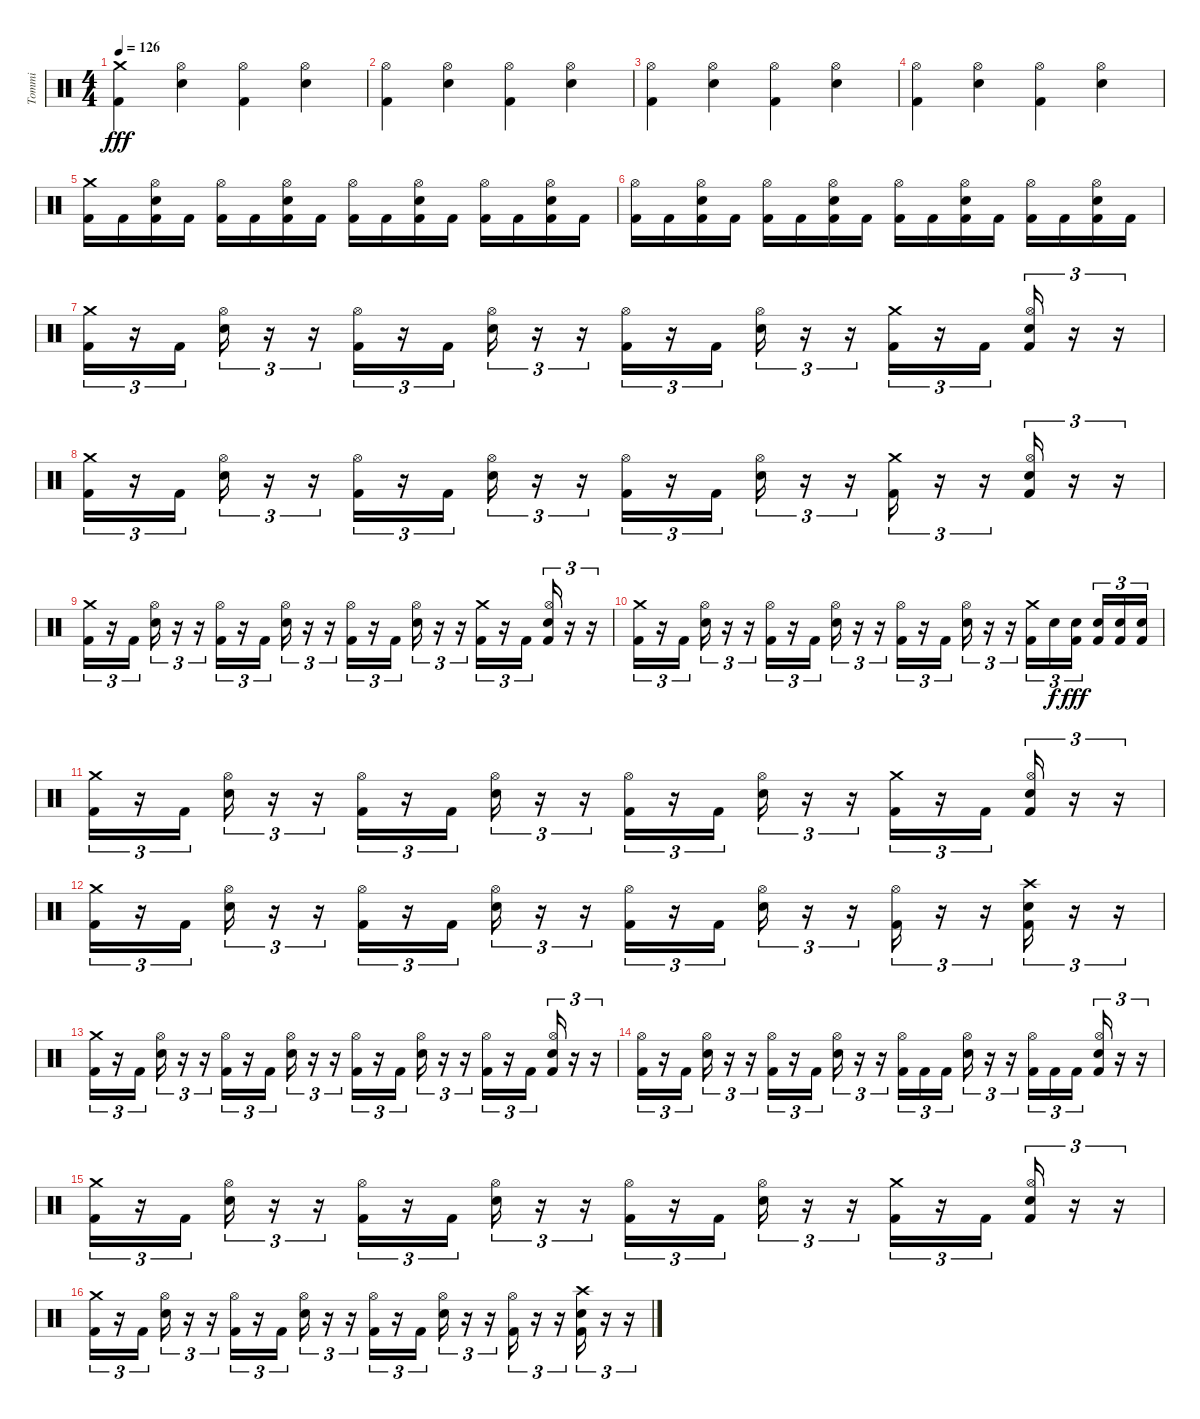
\track ("Tommi" "Tommi") {instrument percussion}
\staff {score}
\articulation defaults
\ts (4 4)
\tempo 126
\clef neutral
\ks c
("Crash medium (hit)" "Kick (hit) 2").4{dy fff} ("Hi-Hat (open)" "Snare (hit) 2").4 ("Hi-Hat (open)" "Kick (hit) 2").4 ("Hi-Hat (open)" "Snare (hit) 2").4 |
("Hi-Hat (open)" "Kick (hit) 2").4 ("Hi-Hat (open)" "Snare (hit) 2").4 ("Hi-Hat (open)" "Kick (hit) 2").4 ("Hi-Hat (open)" "Snare (hit) 2").4 |
("Hi-Hat (open)" "Kick (hit) 2").4 ("Hi-Hat (open)" "Snare (hit) 2").4 ("Hi-Hat (open)" "Kick (hit) 2").4 ("Hi-Hat (open)" "Snare (hit) 2").4 |
("Hi-Hat (open)" "Kick (hit) 2").4 ("Hi-Hat (open)" "Snare (hit) 2").4 ("Hi-Hat (open)" "Kick (hit) 2").4 ("Hi-Hat (open)" "Snare (hit) 2").4 |
("Crash medium (hit)" "Kick (hit) 2").16 "Kick (hit) 2".16 ("Hi-Hat (open)" "Snare (hit) 2" "Kick (hit) 2").16 "Kick (hit) 2".16 ("Hi-Hat (open)" "Kick (hit) 2").16 "Kick (hit) 2".16 ("Hi-Hat (open)" "Snare (hit) 2" "Kick (hit) 2").16 "Kick (hit) 2".16 ("Hi-Hat (open)" "Kick (hit) 2").16 "Kick (hit) 2".16 ("Hi-Hat (open)" "Snare (hit) 2" "Kick (hit) 2").16 "Kick (hit) 2".16 ("Hi-Hat (open)" "Kick (hit) 2").16 "Kick (hit) 2".16 ("Hi-Hat (open)" "Snare (hit) 2" "Kick (hit) 2").16 "Kick (hit) 2".16 |
("Hi-Hat (open)" "Kick (hit) 2").16 "Kick (hit) 2".16 ("Hi-Hat (open)" "Snare (hit) 2" "Kick (hit) 2").16 "Kick (hit) 2".16 ("Hi-Hat (open)" "Kick (hit) 2").16 "Kick (hit) 2".16 ("Hi-Hat (open)" "Snare (hit) 2" "Kick (hit) 2").16 "Kick (hit) 2".16 ("Hi-Hat (open)" "Kick (hit) 2").16 "Kick (hit) 2".16 ("Hi-Hat (open)" "Snare (hit) 2" "Kick (hit) 2").16 "Kick (hit) 2".16 ("Hi-Hat (open)" "Kick (hit) 2").16 "Kick (hit) 2".16 ("Hi-Hat (open)" "Snare (hit) 2" "Kick (hit) 2").16 "Kick (hit) 2".16 |
("Crash medium (hit)" "Kick (hit) 2").16{tu (3 2)} r.16{tu (3 2)} "Kick (hit) 2".16{tu (3 2)} ("Hi-Hat (open)" "Snare (hit) 2").16{tu (3 2)} r.16{tu (3 2)} r.16{tu (3 2)} ("Hi-Hat (open)" "Kick (hit) 2").16{tu (3 2)} r.16{tu (3 2)} "Kick (hit) 2".16{tu (3 2)} ("Hi-Hat (open)" "Snare (hit) 2").16{tu (3 2)} r.16{tu (3 2)} r.16{tu (3 2)} ("Hi-Hat (open)" "Kick (hit) 2").16{tu (3 2)} r.16{tu (3 2)} "Kick (hit) 2".16{tu (3 2)} ("Hi-Hat (open)" "Snare (hit) 2").16{tu (3 2)} r.16{tu (3 2)} r.16{tu (3 2)} ("Crash medium (hit)" "Kick (hit) 2").16{tu (3 2)} r.16{tu (3 2)} "Kick (hit) 2".16{tu (3 2)} ("Hi-Hat (open)" "Snare (hit) 2" "Kick (hit) 2").16{tu (3 2)} r.16{tu (3 2)} r.16{tu (3 2)} |
("Crash medium (hit)" "Kick (hit) 2").16{tu (3 2)} r.16{tu (3 2)} "Kick (hit) 2".16{tu (3 2)} ("Hi-Hat (open)" "Snare (hit) 2").16{tu (3 2)} r.16{tu (3 2)} r.16{tu (3 2)} ("Hi-Hat (open)" "Kick (hit) 2").16{tu (3 2)} r.16{tu (3 2)} "Kick (hit) 2".16{tu (3 2)} ("Hi-Hat (open)" "Snare (hit) 2").16{tu (3 2)} r.16{tu (3 2)} r.16{tu (3 2)} ("Hi-Hat (open)" "Kick (hit) 2").16{tu (3 2)} r.16{tu (3 2)} "Kick (hit) 2".16{tu (3 2)} ("Hi-Hat (open)" "Snare (hit) 2").16{tu (3 2)} r.16{tu (3 2)} r.16{tu (3 2)} ("Crash medium (hit)" "Kick (hit) 2").16{tu (3 2)} r.16{tu (3 2)} r.16{tu (3 2)} ("Hi-Hat (open)" "Snare (hit) 2" "Kick (hit) 2").16{tu (3 2)} r.16{tu (3 2)} r.16{tu (3 2)} |
("Crash medium (hit)" "Kick (hit) 2").16{tu (3 2)} r.16{tu (3 2)} "Kick (hit) 2".16{tu (3 2)} ("Hi-Hat (open)" "Snare (hit) 2").16{tu (3 2)} r.16{tu (3 2)} r.16{tu (3 2)} ("Hi-Hat (open)" "Kick (hit) 2").16{tu (3 2)} r.16{tu (3 2)} "Kick (hit) 2".16{tu (3 2)} ("Hi-Hat (open)" "Snare (hit) 2").16{tu (3 2)} r.16{tu (3 2)} r.16{tu (3 2)} ("Hi-Hat (open)" "Kick (hit) 2").16{tu (3 2)} r.16{tu (3 2)} "Kick (hit) 2".16{tu (3 2)} ("Hi-Hat (open)" "Snare (hit) 2").16{tu (3 2)} r.16{tu (3 2)} r.16{tu (3 2)} ("Crash medium (hit)" "Kick (hit) 2").16{tu (3 2)} r.16{tu (3 2)} "Kick (hit) 2".16{tu (3 2)} ("Hi-Hat (open)" "Snare (hit) 2" "Kick (hit) 2").16{tu (3 2)} r.16{tu (3 2)} r.16{tu (3 2)} |
("Crash medium (hit)" "Kick (hit) 2").16{tu (3 2)} r.16{tu (3 2)} "Kick (hit) 2".16{tu (3 2)} ("Hi-Hat (open)" "Snare (hit) 2").16{tu (3 2)} r.16{tu (3 2)} r.16{tu (3 2)} ("Hi-Hat (open)" "Kick (hit) 2").16{tu (3 2)} r.16{tu (3 2)} "Kick (hit) 2".16{tu (3 2)} ("Hi-Hat (open)" "Snare (hit) 2").16{tu (3 2)} r.16{tu (3 2)} r.16{tu (3 2)} ("Hi-Hat (open)" "Kick (hit) 2").16{tu (3 2)} r.16{tu (3 2)} "Kick (hit) 2".16{tu (3 2)} ("Hi-Hat (open)" "Snare (hit) 2").16{tu (3 2)} r.16{tu (3 2)} r.16{tu (3 2)} ("Crash medium (hit)" "Kick (hit) 2").16{tu (3 2)} "Snare (hit) 2".16{tu (3 2) dy f} ("Snare (hit) 2" "Kick (hit) 2").16{tu (3 2) dy fff beam splitsecondary} ("Snare (hit) 2" "Kick (hit) 2").16{tu (3 2)} ("Snare (hit) 2" "Kick (hit) 2").16{tu (3 2)} ("Snare (hit) 2" "Kick (hit) 2").16{tu (3 2)} |
("Crash medium (hit)" "Kick (hit) 2").16{tu (3 2)} r.16{tu (3 2)} "Kick (hit) 2".16{tu (3 2)} ("Hi-Hat (open)" "Snare (hit) 2").16{tu (3 2)} r.16{tu (3 2)} r.16{tu (3 2)} ("Hi-Hat (open)" "Kick (hit) 2").16{tu (3 2)} r.16{tu (3 2)} "Kick (hit) 2".16{tu (3 2)} ("Hi-Hat (open)" "Snare (hit) 2").16{tu (3 2)} r.16{tu (3 2)} r.16{tu (3 2)} ("Hi-Hat (open)" "Kick (hit) 2").16{tu (3 2)} r.16{tu (3 2)} "Kick (hit) 2".16{tu (3 2)} ("Hi-Hat (open)" "Snare (hit) 2").16{tu (3 2)} r.16{tu (3 2)} r.16{tu (3 2)} ("Crash medium (hit)" "Kick (hit) 2").16{tu (3 2)} r.16{tu (3 2)} "Kick (hit) 2".16{tu (3 2)} ("Hi-Hat (open)" "Snare (hit) 2" "Kick (hit) 2").16{tu (3 2)} r.16{tu (3 2)} r.16{tu (3 2)} |
("Crash medium (hit)" "Kick (hit) 2").16{tu (3 2)} r.16{tu (3 2)} "Kick (hit) 2".16{tu (3 2)} ("Hi-Hat (open)" "Snare (hit) 2").16{tu (3 2)} r.16{tu (3 2)} r.16{tu (3 2)} ("Hi-Hat (open)" "Kick (hit) 2").16{tu (3 2)} r.16{tu (3 2)} "Kick (hit) 2".16{tu (3 2)} ("Hi-Hat (open)" "Snare (hit) 2").16{tu (3 2)} r.16{tu (3 2)} r.16{tu (3 2)} ("Hi-Hat (open)" "Kick (hit) 2").16{tu (3 2)} r.16{tu (3 2)} "Kick (hit) 2".16{tu (3 2)} ("Hi-Hat (open)" "Snare (hit) 2").16{tu (3 2)} r.16{tu (3 2)} r.16{tu (3 2)} ("Hi-Hat (open)" "Kick (hit) 2").16{tu (3 2)} r.16{tu (3 2)} r.16{tu (3 2)} ("Crash high (hit)" "Snare (hit) 2" "Kick (hit) 2").16{tu (3 2)} r.16{tu (3 2)} r.16{tu (3 2)} |
("Crash medium (hit)" "Kick (hit) 2").16{tu (3 2)} r.16{tu (3 2)} "Kick (hit) 2".16{tu (3 2)} ("Hi-Hat (open)" "Snare (hit) 2").16{tu (3 2)} r.16{tu (3 2)} r.16{tu (3 2)} ("Hi-Hat (open)" "Kick (hit) 2").16{tu (3 2)} r.16{tu (3 2)} "Kick (hit) 2".16{tu (3 2)} ("Hi-Hat (open)" "Snare (hit) 2").16{tu (3 2)} r.16{tu (3 2)} r.16{tu (3 2)} ("Hi-Hat (open)" "Kick (hit) 2").16{tu (3 2)} r.16{tu (3 2)} "Kick (hit) 2".16{tu (3 2)} ("Hi-Hat (open)" "Snare (hit) 2").16{tu (3 2)} r.16{tu (3 2)} r.16{tu (3 2)} ("Hi-Hat (open)" "Kick (hit) 2").16{tu (3 2)} r.16{tu (3 2)} "Kick (hit) 2".16{tu (3 2)} ("Hi-Hat (open)" "Snare (hit) 2" "Kick (hit) 2").16{tu (3 2)} r.16{tu (3 2)} r.16{tu (3 2)} |
("Hi-Hat (open)" "Kick (hit) 2").16{tu (3 2)} r.16{tu (3 2)} "Kick (hit) 2".16{tu (3 2)} ("Hi-Hat (open)" "Snare (hit) 2").16{tu (3 2)} r.16{tu (3 2)} r.16{tu (3 2)} ("Hi-Hat (open)" "Kick (hit) 2").16{tu (3 2)} r.16{tu (3 2)} "Kick (hit) 2".16{tu (3 2)} ("Hi-Hat (open)" "Snare (hit) 2").16{tu (3 2)} r.16{tu (3 2)} r.16{tu (3 2)} ("Hi-Hat (open)" "Kick (hit) 2").16{tu (3 2)} "Kick (hit) 2".16{tu (3 2)} "Kick (hit) 2".16{tu (3 2) beam splitsecondary} ("Hi-Hat (open)" "Snare (hit) 2").16{tu (3 2)} r.16{tu (3 2)} r.16{tu (3 2)} ("Hi-Hat (open)" "Kick (hit) 2").16{tu (3 2)} "Kick (hit) 2".16{tu (3 2)} "Kick (hit) 2".16{tu (3 2) beam splitsecondary} ("Hi-Hat (open)" "Snare (hit) 2" "Kick (hit) 2").16{tu (3 2)} r.16{tu (3 2)} r.16{tu (3 2)} |
("Crash medium (hit)" "Kick (hit) 2").16{tu (3 2)} r.16{tu (3 2)} "Kick (hit) 2".16{tu (3 2)} ("Hi-Hat (open)" "Snare (hit) 2").16{tu (3 2)} r.16{tu (3 2)} r.16{tu (3 2)} ("Hi-Hat (open)" "Kick (hit) 2").16{tu (3 2)} r.16{tu (3 2)} "Kick (hit) 2".16{tu (3 2)} ("Hi-Hat (open)" "Snare (hit) 2").16{tu (3 2)} r.16{tu (3 2)} r.16{tu (3 2)} ("Hi-Hat (open)" "Kick (hit) 2").16{tu (3 2)} r.16{tu (3 2)} "Kick (hit) 2".16{tu (3 2)} ("Hi-Hat (open)" "Snare (hit) 2").16{tu (3 2)} r.16{tu (3 2)} r.16{tu (3 2)} ("Crash medium (hit)" "Kick (hit) 2").16{tu (3 2)} r.16{tu (3 2)} "Kick (hit) 2".16{tu (3 2)} ("Hi-Hat (open)" "Snare (hit) 2" "Kick (hit) 2").16{tu (3 2)} r.16{tu (3 2)} r.16{tu (3 2)} |
("Crash medium (hit)" "Kick (hit) 2").16{tu (3 2)} r.16{tu (3 2)} "Kick (hit) 2".16{tu (3 2)} ("Hi-Hat (open)" "Snare (hit) 2").16{tu (3 2)} r.16{tu (3 2)} r.16{tu (3 2)} ("Hi-Hat (open)" "Kick (hit) 2").16{tu (3 2)} r.16{tu (3 2)} "Kick (hit) 2".16{tu (3 2)} ("Hi-Hat (open)" "Snare (hit) 2").16{tu (3 2)} r.16{tu (3 2)} r.16{tu (3 2)} ("Hi-Hat (open)" "Kick (hit) 2").16{tu (3 2)} r.16{tu (3 2)} "Kick (hit) 2".16{tu (3 2)} ("Hi-Hat (open)" "Snare (hit) 2").16{tu (3 2)} r.16{tu (3 2)} r.16{tu (3 2)} ("Hi-Hat (open)" "Kick (hit) 2").16{tu (3 2)} r.16{tu (3 2)} r.16{tu (3 2)} ("Crash high (hit)" "Snare (hit) 2" "Kick (hit) 2").16{tu (3 2)} r.16{tu (3 2)} r.16{tu (3 2)}
